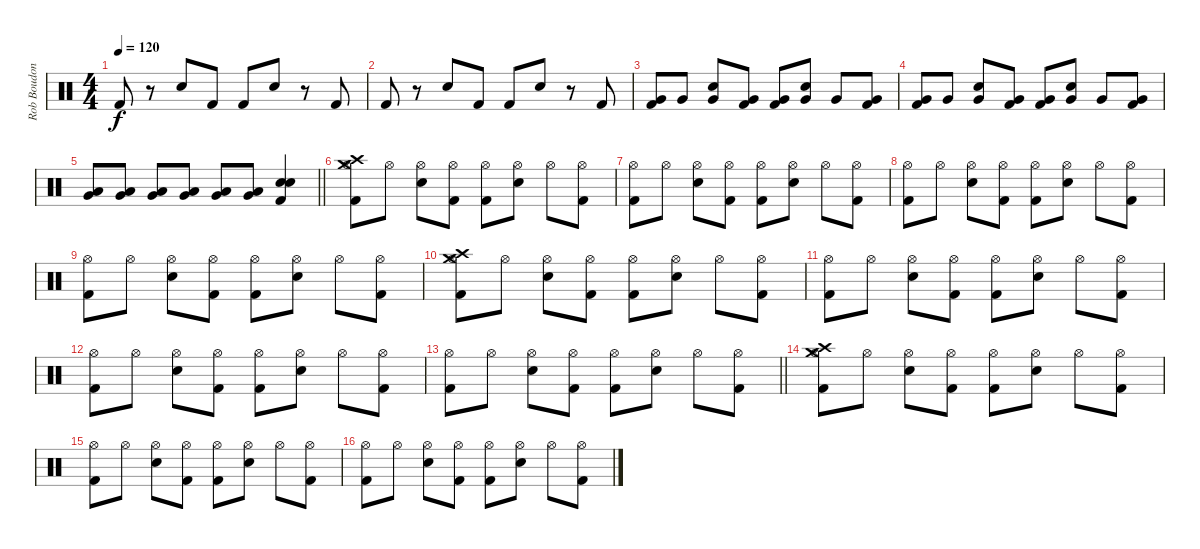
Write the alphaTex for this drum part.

\track ("Rob Boudon [Drums]" "Rob Boudon") {instrument percussion}
\staff {score}
\articulation defaults
\ts (4 4)
\tempo 120
\clef neutral
\ks c "Kick (hit) 2".8{dy f}
r.8 "Snare (hit) 2".8 "Kick (hit) 2".8 "Kick (hit) 2".8 "Snare (hit) 2".8 r.8 "Kick (hit) 2".8 |
"Kick (hit) 2".8 r.8 "Snare (hit) 2".8 "Kick (hit) 2".8 "Kick (hit) 2".8 "Snare (hit) 2".8 r.8 "Kick (hit) 2".8 |
("Very Low Tom (hit)" "Kick (hit) 2").8 "Very Low Tom (hit)".8 ("Very Low Tom (hit)" "Snare (hit) 2").8 ("Very Low Tom (hit)" "Kick (hit) 2").8 ("Very Low Tom (hit)" "Kick (hit) 2").8 ("Very Low Tom (hit)" "Snare (hit) 2").8 "Very Low Tom (hit)".8 ("Very Low Tom (hit)" "Kick (hit) 2").8 |
("Very Low Tom (hit)" "Kick (hit) 2").8 "Very Low Tom (hit)".8 ("Very Low Tom (hit)" "Snare (hit) 2").8 ("Very Low Tom (hit)" "Kick (hit) 2").8 ("Very Low Tom (hit)" "Kick (hit) 2").8 ("Very Low Tom (hit)" "Snare (hit) 2").8 "Very Low Tom (hit)".8 ("Very Low Tom (hit)" "Kick (hit) 2").8 |
\barLineRight lightlight
("Low Floor Tom (hit)" "Very Low Tom (hit)").8 ("Low Floor Tom (hit)" "Very Low Tom (hit)").8 ("Low Floor Tom (hit)" "Very Low Tom (hit)").8 ("Low Floor Tom (hit)" "Very Low Tom (hit)").8 ("Low Floor Tom (hit)" "Very Low Tom (hit)").8 ("Low Floor Tom (hit)" "Very Low Tom (hit)").8 ("Snare (hit) 2" "Snare (hit) 2" "Kick (hit) 2").4 |
("Crash medium (hit)" "Crash high (hit)" "Hi-Hat (open)" "Kick (hit) 2").8 "Hi-Hat (open)".8 ("Hi-Hat (open)" "Snare (hit) 2").8 ("Hi-Hat (open)" "Kick (hit) 2").8 ("Hi-Hat (open)" "Kick (hit) 2").8 ("Hi-Hat (open)" "Snare (hit) 2").8 "Hi-Hat (open)".8 ("Hi-Hat (open)" "Kick (hit) 2").8 |
("Hi-Hat (open)" "Kick (hit) 2").8 "Hi-Hat (open)".8 ("Hi-Hat (open)" "Snare (hit) 2").8 ("Hi-Hat (open)" "Kick (hit) 2").8 ("Hi-Hat (open)" "Kick (hit) 2").8 ("Hi-Hat (open)" "Snare (hit) 2").8 "Hi-Hat (open)".8 ("Hi-Hat (open)" "Kick (hit) 2").8 |
("Hi-Hat (open)" "Kick (hit) 2").8 "Hi-Hat (open)".8 ("Hi-Hat (open)" "Snare (hit) 2").8 ("Hi-Hat (open)" "Kick (hit) 2").8 ("Hi-Hat (open)" "Kick (hit) 2").8 ("Hi-Hat (open)" "Snare (hit) 2").8 "Hi-Hat (open)".8 ("Hi-Hat (open)" "Kick (hit) 2").8 |
("Hi-Hat (open)" "Kick (hit) 2").8 "Hi-Hat (open)".8 ("Hi-Hat (open)" "Snare (hit) 2").8 ("Hi-Hat (open)" "Kick (hit) 2").8 ("Hi-Hat (open)" "Kick (hit) 2").8 ("Hi-Hat (open)" "Snare (hit) 2").8 "Hi-Hat (open)".8 ("Hi-Hat (open)" "Kick (hit) 2").8 |
("Crash medium (hit)" "Crash high (hit)" "Hi-Hat (open)" "Kick (hit) 2").8 "Hi-Hat (open)".8 ("Hi-Hat (open)" "Snare (hit) 2").8 ("Hi-Hat (open)" "Kick (hit) 2").8 ("Hi-Hat (open)" "Kick (hit) 2").8 ("Hi-Hat (open)" "Snare (hit) 2").8 "Hi-Hat (open)".8 ("Hi-Hat (open)" "Kick (hit) 2").8 |
("Hi-Hat (open)" "Kick (hit) 2").8 "Hi-Hat (open)".8 ("Hi-Hat (open)" "Snare (hit) 2").8 ("Hi-Hat (open)" "Kick (hit) 2").8 ("Hi-Hat (open)" "Kick (hit) 2").8 ("Hi-Hat (open)" "Snare (hit) 2").8 "Hi-Hat (open)".8 ("Hi-Hat (open)" "Kick (hit) 2").8 |
("Hi-Hat (open)" "Kick (hit) 2").8 "Hi-Hat (open)".8 ("Hi-Hat (open)" "Snare (hit) 2").8 ("Hi-Hat (open)" "Kick (hit) 2").8 ("Hi-Hat (open)" "Kick (hit) 2").8 ("Hi-Hat (open)" "Snare (hit) 2").8 "Hi-Hat (open)".8 ("Hi-Hat (open)" "Kick (hit) 2").8 |
\barLineRight lightlight
("Hi-Hat (open)" "Kick (hit) 2").8 "Hi-Hat (open)".8 ("Hi-Hat (open)" "Snare (hit) 2").8 ("Hi-Hat (open)" "Kick (hit) 2").8 ("Hi-Hat (open)" "Kick (hit) 2").8 ("Hi-Hat (open)" "Snare (hit) 2").8 "Hi-Hat (open)".8 ("Hi-Hat (open)" "Kick (hit) 2").8 |
("Crash medium (hit)" "Crash high (hit)" "Hi-Hat (open)" "Kick (hit) 2").8 "Hi-Hat (open)".8 ("Hi-Hat (open)" "Snare (hit) 2").8 ("Hi-Hat (open)" "Kick (hit) 2").8 ("Hi-Hat (open)" "Kick (hit) 2").8 ("Hi-Hat (open)" "Snare (hit) 2").8 "Hi-Hat (open)".8 ("Hi-Hat (open)" "Kick (hit) 2").8 |
("Hi-Hat (open)" "Kick (hit) 2").8 "Hi-Hat (open)".8 ("Hi-Hat (open)" "Snare (hit) 2").8 ("Hi-Hat (open)" "Kick (hit) 2").8 ("Hi-Hat (open)" "Kick (hit) 2").8 ("Hi-Hat (open)" "Snare (hit) 2").8 "Hi-Hat (open)".8 ("Hi-Hat (open)" "Kick (hit) 2").8 |
("Hi-Hat (open)" "Kick (hit) 2").8 "Hi-Hat (open)".8 ("Hi-Hat (open)" "Snare (hit) 2").8 ("Hi-Hat (open)" "Kick (hit) 2").8 ("Hi-Hat (open)" "Kick (hit) 2").8 ("Hi-Hat (open)" "Snare (hit) 2").8 "Hi-Hat (open)".8 ("Hi-Hat (open)" "Kick (hit) 2").8
